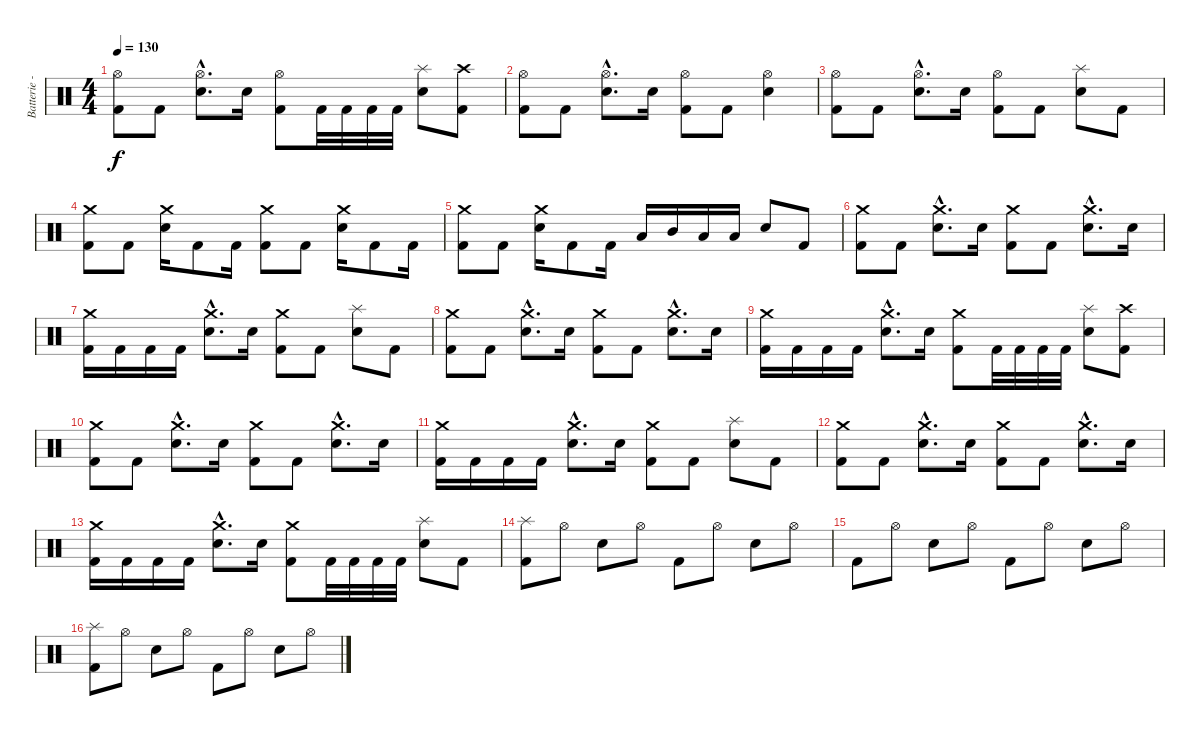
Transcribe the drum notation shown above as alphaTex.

\track ("Batterie - Anton" "Batterie -") {instrument percussion}
\staff {score}
\articulation defaults
\ts (4 4)
\tempo 130
\clef neutral
\ks c
("Hi-Hat (open)" "Kick (hit) 2").8{dy f} "Kick (hit) 2".8 ("Hi-Hat (open)"{hac} "Electric Snare (hit)"{hac}).8{d} "Electric Snare (hit)".16 ("Hi-Hat (open)" "Kick (hit) 2").8 "Kick (hit) 2".32 "Kick (hit) 2".32 "Kick (hit) 2".32 "Kick (hit) 2".32 ("Splash (hit)" "Electric Snare (hit)").8 ("Crash high (hit)" "Kick (hit) 2").8 |
("Hi-Hat (open)" "Kick (hit) 2").8 "Kick (hit) 2".8 ("Hi-Hat (open)"{hac} "Electric Snare (hit)"{hac}).8{d} "Electric Snare (hit)".16 ("Hi-Hat (open)" "Kick (hit) 2").8 "Kick (hit) 2".8 ("Hi-Hat (open)" "Electric Snare (hit)").4 |
("Hi-Hat (open)" "Kick (hit) 2").8 "Kick (hit) 2".8 ("Hi-Hat (open)"{hac} "Electric Snare (hit)"{hac}).8{d} "Electric Snare (hit)".16 ("Hi-Hat (open)" "Kick (hit) 2").8 "Kick (hit) 2".8 ("Splash (hit)" "Electric Snare (hit)").8 "Kick (hit) 2".8 |
("Crash medium (hit)" "Kick (hit) 2").8 "Kick (hit) 2".8 ("Crash medium (hit)" "Electric Snare (hit)").16 "Kick (hit) 2".8 "Kick (hit) 2".16 ("Crash medium (hit)" "Kick (hit) 2").8 "Kick (hit) 2".8 ("Crash medium (hit)" "Electric Snare (hit)").16 "Kick (hit) 2".8 "Kick (hit) 2".16 |
("Crash medium (hit)" "Kick (hit) 2").8 "Kick (hit) 2".8 ("Crash medium (hit)" "Electric Snare (hit)").16 "Kick (hit) 2".8 "Kick (hit) 2".16 "Low Tom (hit)".16 "Mid Tom (hit)".16 "Low Tom (hit)".16 "Low Tom (hit)".16 "Electric Snare (hit)".8 "Kick (hit) 2".8 |
("Crash medium (hit)" "Kick (hit) 2").8 "Kick (hit) 2".8 ("Crash medium (hit)"{hac} "Electric Snare (hit)"{hac}).8{d} "Electric Snare (hit)".16 ("Crash medium (hit)" "Kick (hit) 2").8 "Kick (hit) 2".8 ("Crash medium (hit)"{hac} "Electric Snare (hit)"{hac}).8{d} "Electric Snare (hit)".16 |
("Crash medium (hit)" "Kick (hit) 2").16 "Kick (hit) 2".16 "Kick (hit) 2".16 "Kick (hit) 2".16 ("Crash medium (hit)"{hac} "Electric Snare (hit)"{hac}).8{d} "Electric Snare (hit)".16 ("Crash medium (hit)" "Kick (hit) 2").8 "Kick (hit) 2".8 ("Splash (hit)" "Electric Snare (hit)").8 "Kick (hit) 2".8 |
("Crash medium (hit)" "Kick (hit) 2").8 "Kick (hit) 2".8 ("Crash medium (hit)"{hac} "Electric Snare (hit)"{hac}).8{d} "Electric Snare (hit)".16 ("Crash medium (hit)" "Kick (hit) 2").8 "Kick (hit) 2".8 ("Crash medium (hit)"{hac} "Electric Snare (hit)"{hac}).8{d} "Electric Snare (hit)".16 |
("Crash medium (hit)" "Kick (hit) 2").16 "Kick (hit) 2".16 "Kick (hit) 2".16 "Kick (hit) 2".16 ("Crash medium (hit)"{hac} "Electric Snare (hit)"{hac}).8{d} "Electric Snare (hit)".16 ("Crash medium (hit)" "Kick (hit) 2").8 "Kick (hit) 2".32 "Kick (hit) 2".32 "Kick (hit) 2".32 "Kick (hit) 2".32 ("Splash (hit)" "Electric Snare (hit)").8 ("Crash high (hit)" "Kick (hit) 2").8 |
("Crash medium (hit)" "Kick (hit) 2").8 "Kick (hit) 2".8 ("Crash medium (hit)"{hac} "Electric Snare (hit)"{hac}).8{d} "Electric Snare (hit)".16 ("Crash medium (hit)" "Kick (hit) 2").8 "Kick (hit) 2".8 ("Crash medium (hit)"{hac} "Electric Snare (hit)"{hac}).8{d} "Electric Snare (hit)".16 |
("Crash medium (hit)" "Kick (hit) 2").16 "Kick (hit) 2".16 "Kick (hit) 2".16 "Kick (hit) 2".16 ("Crash medium (hit)"{hac} "Electric Snare (hit)"{hac}).8{d} "Electric Snare (hit)".16 ("Crash medium (hit)" "Kick (hit) 2").8 "Kick (hit) 2".8 ("Splash (hit)" "Electric Snare (hit)").8 "Kick (hit) 2".8 |
("Crash medium (hit)" "Kick (hit) 2").8 "Kick (hit) 2".8 ("Crash medium (hit)"{hac} "Electric Snare (hit)"{hac}).8{d} "Electric Snare (hit)".16 ("Crash medium (hit)" "Kick (hit) 2").8 "Kick (hit) 2".8 ("Crash medium (hit)"{hac} "Electric Snare (hit)"{hac}).8{d} "Electric Snare (hit)".16 |
("Crash medium (hit)" "Kick (hit) 2").16 "Kick (hit) 2".16 "Kick (hit) 2".16 "Kick (hit) 2".16 ("Crash medium (hit)"{hac} "Electric Snare (hit)"{hac}).8{d} "Electric Snare (hit)".16 ("Crash medium (hit)" "Kick (hit) 2").8 "Kick (hit) 2".32 "Kick (hit) 2".32 "Kick (hit) 2".32 "Kick (hit) 2".32 ("Splash (hit)" "Electric Snare (hit)").8 "Kick (hit) 2".8 |
("Splash (hit)" "Kick (hit) 2").8 "Hi-Hat (open)".8 "Electric Snare (hit)".8 "Hi-Hat (open)".8 "Kick (hit) 2".8 "Hi-Hat (open)".8 "Electric Snare (hit)".8 "Hi-Hat (open)".8 |
"Kick (hit) 2".8 "Hi-Hat (open)".8 "Electric Snare (hit)".8 "Hi-Hat (open)".8 "Kick (hit) 2".8 "Hi-Hat (open)".8 "Electric Snare (hit)".8 "Hi-Hat (open)".8 |
("Splash (hit)" "Kick (hit) 2").8 "Hi-Hat (open)".8 "Electric Snare (hit)".8 "Hi-Hat (open)".8 "Kick (hit) 2".8 "Hi-Hat (open)".8 "Electric Snare (hit)".8 "Hi-Hat (open)".8
